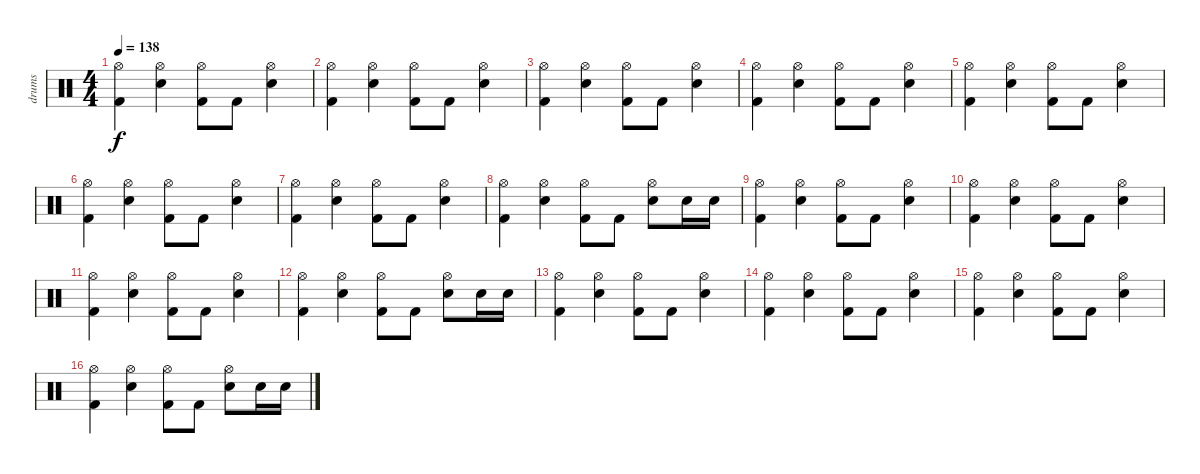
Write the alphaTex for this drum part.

\track ("drums" "drums") {instrument percussion}
\staff {score}
\articulation defaults
\ts (4 4)
\tempo 138
\clef neutral
\ks c
("Hi-Hat (open)" "Kick (hit) 2").4{dy f} ("Hi-Hat (open)" "Electric Snare (hit)").4 ("Hi-Hat (open)" "Kick (hit) 2").8 "Kick (hit) 2".8 ("Hi-Hat (open)" "Electric Snare (hit)").4 |
("Hi-Hat (open)" "Kick (hit) 2").4 ("Hi-Hat (open)" "Electric Snare (hit)").4 ("Hi-Hat (open)" "Kick (hit) 2").8 "Kick (hit) 2".8 ("Hi-Hat (open)" "Electric Snare (hit)").4 |
("Hi-Hat (open)" "Kick (hit) 2").4 ("Hi-Hat (open)" "Electric Snare (hit)").4 ("Hi-Hat (open)" "Kick (hit) 2").8 "Kick (hit) 2".8 ("Hi-Hat (open)" "Electric Snare (hit)").4 |
("Hi-Hat (open)" "Kick (hit) 2").4 ("Hi-Hat (open)" "Electric Snare (hit)").4 ("Hi-Hat (open)" "Kick (hit) 2").8 "Kick (hit) 2".8 ("Hi-Hat (open)" "Electric Snare (hit)").4 |
("Hi-Hat (open)" "Kick (hit) 2").4 ("Hi-Hat (open)" "Electric Snare (hit)").4 ("Hi-Hat (open)" "Kick (hit) 2").8 "Kick (hit) 2".8 ("Hi-Hat (open)" "Electric Snare (hit)").4 |
("Hi-Hat (open)" "Kick (hit) 2").4 ("Hi-Hat (open)" "Electric Snare (hit)").4 ("Hi-Hat (open)" "Kick (hit) 2").8 "Kick (hit) 2".8 ("Hi-Hat (open)" "Electric Snare (hit)").4 |
("Hi-Hat (open)" "Kick (hit) 2").4 ("Hi-Hat (open)" "Electric Snare (hit)").4 ("Hi-Hat (open)" "Kick (hit) 2").8 "Kick (hit) 2".8 ("Hi-Hat (open)" "Electric Snare (hit)").4 |
("Hi-Hat (open)" "Kick (hit) 2").4 ("Hi-Hat (open)" "Electric Snare (hit)").4 ("Hi-Hat (open)" "Kick (hit) 2").8 "Kick (hit) 2".8 ("Hi-Hat (open)" "Electric Snare (hit)").8 "Electric Snare (hit)".16 "Electric Snare (hit)".16 |
("Hi-Hat (open)" "Kick (hit) 2").4 ("Hi-Hat (open)" "Electric Snare (hit)").4 ("Hi-Hat (open)" "Kick (hit) 2").8 "Kick (hit) 2".8 ("Hi-Hat (open)" "Electric Snare (hit)").4 |
("Hi-Hat (open)" "Kick (hit) 2").4 ("Hi-Hat (open)" "Electric Snare (hit)").4 ("Hi-Hat (open)" "Kick (hit) 2").8 "Kick (hit) 2".8 ("Hi-Hat (open)" "Electric Snare (hit)").4 |
("Hi-Hat (open)" "Kick (hit) 2").4 ("Hi-Hat (open)" "Electric Snare (hit)").4 ("Hi-Hat (open)" "Kick (hit) 2").8 "Kick (hit) 2".8 ("Hi-Hat (open)" "Electric Snare (hit)").4 |
("Hi-Hat (open)" "Kick (hit) 2").4 ("Hi-Hat (open)" "Electric Snare (hit)").4 ("Hi-Hat (open)" "Kick (hit) 2").8 "Kick (hit) 2".8 ("Hi-Hat (open)" "Electric Snare (hit)").8 "Electric Snare (hit)".16 "Electric Snare (hit)".16 |
("Hi-Hat (open)" "Kick (hit) 2").4 ("Hi-Hat (open)" "Electric Snare (hit)").4 ("Hi-Hat (open)" "Kick (hit) 2").8 "Kick (hit) 2".8 ("Hi-Hat (open)" "Electric Snare (hit)").4 |
("Hi-Hat (open)" "Kick (hit) 2").4 ("Hi-Hat (open)" "Electric Snare (hit)").4 ("Hi-Hat (open)" "Kick (hit) 2").8 "Kick (hit) 2".8 ("Hi-Hat (open)" "Electric Snare (hit)").4 |
("Hi-Hat (open)" "Kick (hit) 2").4 ("Hi-Hat (open)" "Electric Snare (hit)").4 ("Hi-Hat (open)" "Kick (hit) 2").8 "Kick (hit) 2".8 ("Hi-Hat (open)" "Electric Snare (hit)").4 |
("Hi-Hat (open)" "Kick (hit) 2").4 ("Hi-Hat (open)" "Electric Snare (hit)").4 ("Hi-Hat (open)" "Kick (hit) 2").8 "Kick (hit) 2".8 ("Hi-Hat (open)" "Electric Snare (hit)").8 "Electric Snare (hit)".16 "Electric Snare (hit)".16
